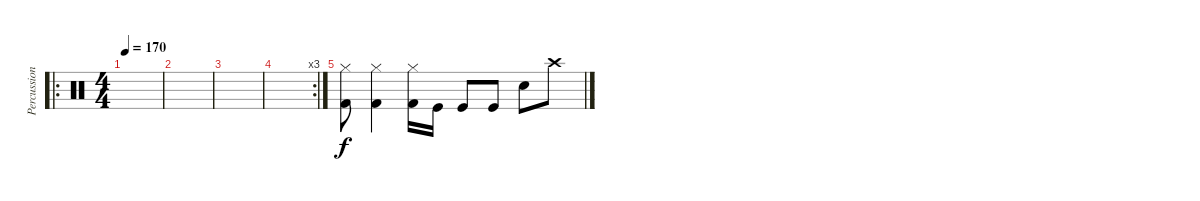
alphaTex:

\track ("Percussions" "Percussion") {instrument percussion}
\staff {score}
\articulation defaults
\ro
\ts (4 4)
\tempo 170
\clef neutral
\ks c
|
|
|
\rc 3
|
("Hi-Hat (closed)" "Kick (hit) 2").8 ("Hi-Hat (closed)" "Kick (hit) 2").4 ("Hi-Hat (closed)" "Kick (hit) 2").16 "Kick (hit)".16 "Kick (hit)".8 "Kick (hit)".8 "Snare (hit) 2".8 "Crash high (hit)".8
